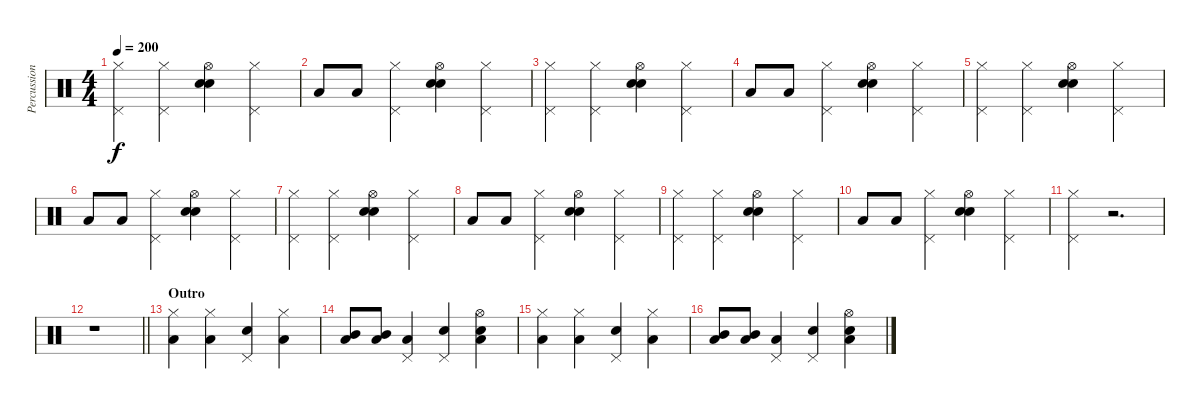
\track ("Percussion" "Percussion") {instrument percussion}
\staff {score}
\articulation defaults
\ts (4 4)
\tempo 200
\clef neutral
\ks c
("Hi-Hat (closed)" "Pedal Hi-Hat (hit)").4{dy f} ("Hi-Hat (closed)" "Pedal Hi-Hat (hit)").4 ("Snare (hit) 2" "Electric Snare (hit)" "Hi-Hat (open)").4 ("Hi-Hat (closed)" "Pedal Hi-Hat (hit)").4 |
"Low Tom (hit)".8 "Low Tom (hit)".8 ("Hi-Hat (closed)" "Pedal Hi-Hat (hit)").4 ("Snare (hit) 2" "Electric Snare (hit)" "Hi-Hat (open)").4 ("Hi-Hat (closed)" "Pedal Hi-Hat (hit)").4 |
("Hi-Hat (closed)" "Pedal Hi-Hat (hit)").4 ("Hi-Hat (closed)" "Pedal Hi-Hat (hit)").4 ("Snare (hit) 2" "Electric Snare (hit)" "Hi-Hat (open)").4 ("Hi-Hat (closed)" "Pedal Hi-Hat (hit)").4 |
"Low Tom (hit)".8 "Low Tom (hit)".8 ("Hi-Hat (closed)" "Pedal Hi-Hat (hit)").4 ("Snare (hit) 2" "Electric Snare (hit)" "Hi-Hat (open)").4 ("Hi-Hat (closed)" "Pedal Hi-Hat (hit)").4 |
("Hi-Hat (closed)" "Pedal Hi-Hat (hit)").4 ("Hi-Hat (closed)" "Pedal Hi-Hat (hit)").4 ("Snare (hit) 2" "Electric Snare (hit)" "Hi-Hat (open)").4 ("Hi-Hat (closed)" "Pedal Hi-Hat (hit)").4 |
"Low Tom (hit)".8 "Low Tom (hit)".8 ("Hi-Hat (closed)" "Pedal Hi-Hat (hit)").4 ("Snare (hit) 2" "Electric Snare (hit)" "Hi-Hat (open)").4 ("Hi-Hat (closed)" "Pedal Hi-Hat (hit)").4 |
("Hi-Hat (closed)" "Pedal Hi-Hat (hit)").4 ("Hi-Hat (closed)" "Pedal Hi-Hat (hit)").4 ("Snare (hit) 2" "Electric Snare (hit)" "Hi-Hat (open)").4 ("Hi-Hat (closed)" "Pedal Hi-Hat (hit)").4 |
"Low Tom (hit)".8 "Low Tom (hit)".8 ("Hi-Hat (closed)" "Pedal Hi-Hat (hit)").4 ("Snare (hit) 2" "Electric Snare (hit)" "Hi-Hat (open)").4 ("Hi-Hat (closed)" "Pedal Hi-Hat (hit)").4 |
("Hi-Hat (closed)" "Pedal Hi-Hat (hit)").4 ("Hi-Hat (closed)" "Pedal Hi-Hat (hit)").4 ("Snare (hit) 2" "Electric Snare (hit)" "Hi-Hat (open)").4 ("Hi-Hat (closed)" "Pedal Hi-Hat (hit)").4 |
"Low Tom (hit)".8 "Low Tom (hit)".8 ("Hi-Hat (closed)" "Pedal Hi-Hat (hit)").4 ("Snare (hit) 2" "Electric Snare (hit)" "Hi-Hat (open)").4 ("Hi-Hat (closed)" "Pedal Hi-Hat (hit)").4 |
("Hi-Hat (closed)" "Pedal Hi-Hat (hit)").4 r.2{d} |
\barLineRight lightlight
r.1 |
\section ("" "Outro")
("Hi-Hat (closed)" "Low Tom (hit)").4 ("Hi-Hat (closed)" "Low Tom (hit)").4 ("Electric Snare (hit)" "Pedal Hi-Hat (hit)").4 ("Hi-Hat (closed)" "Low Tom (hit)").4 |
("Low Floor Tom (hit)" "Mid Tom (hit)").8 ("Low Floor Tom (hit)" "Mid Tom (hit)").8 ("Pedal Hi-Hat (hit)" "Low Tom (hit)").4 ("Snare (hit) 2" "Pedal Hi-Hat (hit)").4 ("Electric Snare (hit)" "Low Tom (hit)" "Hi-Hat (open)").4 |
("Hi-Hat (closed)" "Low Tom (hit)").4 ("Hi-Hat (closed)" "Low Tom (hit)").4 ("Electric Snare (hit)" "Pedal Hi-Hat (hit)").4 ("Hi-Hat (closed)" "Low Tom (hit)").4 |
("Low Floor Tom (hit)" "Mid Tom (hit)").8 ("Low Floor Tom (hit)" "Mid Tom (hit)").8 ("Pedal Hi-Hat (hit)" "Low Tom (hit)").4 ("Snare (hit) 2" "Pedal Hi-Hat (hit)").4 ("Electric Snare (hit)" "Low Tom (hit)" "Hi-Hat (open)").4
